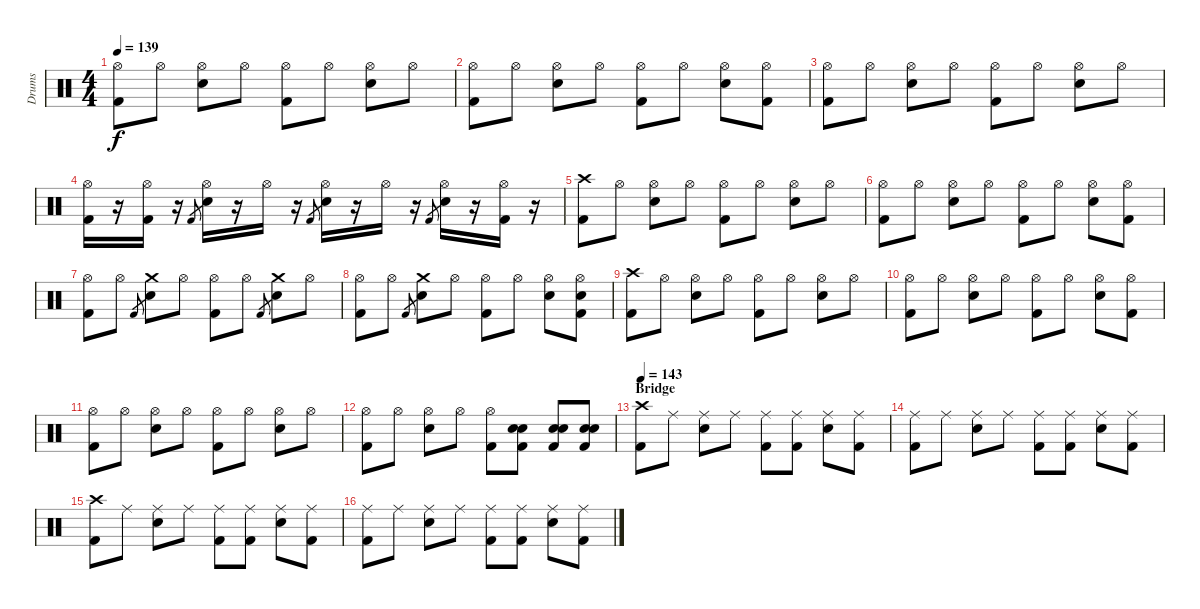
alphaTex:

\track ("Drums" "Drums") {instrument percussion}
\staff {score}
\articulation defaults
\ts (4 4)
\tempo 139
\clef neutral
\ks c
("Kick (hit) 2" "Hi-Hat (open)").8{dy f} "Hi-Hat (open)".8 ("Electric Snare (hit)" "Hi-Hat (open)").8 "Hi-Hat (open)".8 ("Kick (hit) 2" "Hi-Hat (open)").8 "Hi-Hat (open)".8 ("Electric Snare (hit)" "Hi-Hat (open)").8 "Hi-Hat (open)".8 |
("Kick (hit) 2" "Hi-Hat (open)").8 "Hi-Hat (open)".8 ("Electric Snare (hit)" "Hi-Hat (open)").8 "Hi-Hat (open)".8 ("Kick (hit) 2" "Hi-Hat (open)").8 "Hi-Hat (open)".8 ("Electric Snare (hit)" "Hi-Hat (open)").8 ("Kick (hit) 2" "Hi-Hat (open)").8 |
("Kick (hit) 2" "Hi-Hat (open)").8 "Hi-Hat (open)".8 ("Electric Snare (hit)" "Hi-Hat (open)").8 "Hi-Hat (open)".8 ("Kick (hit) 2" "Hi-Hat (open)").8 "Hi-Hat (open)".8 ("Electric Snare (hit)" "Hi-Hat (open)").8 "Hi-Hat (open)".8 |
("Kick (hit) 2" "Hi-Hat (open)").16 r.16 ("Kick (hit) 2" "Hi-Hat (open)").16 r.16 "Kick (hit) 2".8{gr} ("Electric Snare (hit)" "Hi-Hat (open)").16 r.16 "Hi-Hat (open)".16 r.16 "Kick (hit) 2".8{gr} ("Electric Snare (hit)" "Hi-Hat (open)").16 r.16 "Hi-Hat (open)".16 r.16 "Kick (hit) 2".8{gr} ("Electric Snare (hit)" "Hi-Hat (open)").16 r.16 ("Kick (hit) 2" "Hi-Hat (open)").16 r.16 |
("Kick (hit) 2" "Crash high (hit)").8 "Hi-Hat (open)".8 ("Electric Snare (hit)" "Hi-Hat (open)").8 "Hi-Hat (open)".8 ("Kick (hit) 2" "Hi-Hat (open)").8 "Hi-Hat (open)".8 ("Electric Snare (hit)" "Hi-Hat (open)").8 "Hi-Hat (open)".8 |
("Kick (hit) 2" "Hi-Hat (open)").8 "Hi-Hat (open)".8 ("Electric Snare (hit)" "Hi-Hat (open)").8 "Hi-Hat (open)".8 ("Kick (hit) 2" "Hi-Hat (open)").8 "Hi-Hat (open)".8 ("Electric Snare (hit)" "Hi-Hat (open)").8 ("Kick (hit) 2" "Hi-Hat (open)").8 |
("Kick (hit) 2" "Hi-Hat (open)").8 "Hi-Hat (open)".8 "Kick (hit) 2".8{gr} ("Electric Snare (hit)" "Crash medium (hit)").8 "Hi-Hat (open)".8 ("Kick (hit) 2" "Hi-Hat (open)").8 "Hi-Hat (open)".8 "Kick (hit) 2".8{gr} ("Electric Snare (hit)" "Crash medium (hit)").8 "Hi-Hat (open)".8 |
("Kick (hit) 2" "Hi-Hat (open)").8 "Hi-Hat (open)".8 "Kick (hit) 2".8{gr} ("Electric Snare (hit)" "Crash medium (hit)").8 "Hi-Hat (open)".8 ("Kick (hit) 2" "Hi-Hat (open)").8 "Hi-Hat (open)".8 ("Electric Snare (hit)" "Hi-Hat (open)").8 ("Kick (hit) 2" "Electric Snare (hit)" "Hi-Hat (open)").8 |
("Kick (hit) 2" "Crash high (hit)").8 "Hi-Hat (open)".8 ("Electric Snare (hit)" "Hi-Hat (open)").8 "Hi-Hat (open)".8 ("Kick (hit) 2" "Hi-Hat (open)").8 "Hi-Hat (open)".8 ("Electric Snare (hit)" "Hi-Hat (open)").8 "Hi-Hat (open)".8 |
("Kick (hit) 2" "Hi-Hat (open)").8 "Hi-Hat (open)".8 ("Electric Snare (hit)" "Hi-Hat (open)").8 "Hi-Hat (open)".8 ("Kick (hit) 2" "Hi-Hat (open)").8 "Hi-Hat (open)".8 ("Electric Snare (hit)" "Hi-Hat (open)").8 ("Kick (hit) 2" "Hi-Hat (open)").8 |
("Kick (hit) 2" "Hi-Hat (open)").8 "Hi-Hat (open)".8 ("Electric Snare (hit)" "Hi-Hat (open)").8 "Hi-Hat (open)".8 ("Kick (hit) 2" "Hi-Hat (open)").8 "Hi-Hat (open)".8 ("Electric Snare (hit)" "Hi-Hat (open)").8 "Hi-Hat (open)".8 |
("Kick (hit) 2" "Hi-Hat (open)").8 "Hi-Hat (open)".8 ("Electric Snare (hit)" "Hi-Hat (open)").8 "Hi-Hat (open)".8 ("Kick (hit) 2" "Hi-Hat (open)").8 ("Kick (hit) 2" "Electric Snare (hit)" "Electric Snare (hit)").8 ("Kick (hit) 2" "Electric Snare (hit)" "Electric Snare (hit)").8 ("Kick (hit) 2" "Electric Snare (hit)" "Electric Snare (hit)").8 |
\section ("" "Bridge")
\tempo 143
("Kick (hit) 2" "Crash high (hit)").8 "Ride (middle)".8 ("Electric Snare (hit)" "Ride (middle)").8 "Ride (middle)".8 ("Kick (hit) 2" "Ride (middle)").8 ("Kick (hit) 2" "Ride (middle)").8 ("Electric Snare (hit)" "Ride (middle)").8 ("Kick (hit) 2" "Ride (middle)").8 |
("Kick (hit) 2" "Ride (middle)").8 "Ride (middle)".8 ("Electric Snare (hit)" "Ride (middle)").8 "Ride (middle)".8 ("Kick (hit) 2" "Ride (middle)").8 ("Kick (hit) 2" "Ride (middle)").8 ("Electric Snare (hit)" "Ride (middle)").8 ("Kick (hit) 2" "Ride (middle)").8 |
("Kick (hit) 2" "Crash high (hit)").8 "Ride (middle)".8 ("Electric Snare (hit)" "Ride (middle)").8 "Ride (middle)".8 ("Kick (hit) 2" "Ride (middle)").8 ("Kick (hit) 2" "Ride (middle)").8 ("Electric Snare (hit)" "Ride (middle)").8 ("Kick (hit) 2" "Ride (middle)").8 |
("Kick (hit) 2" "Ride (middle)").8 "Ride (middle)".8 ("Electric Snare (hit)" "Ride (middle)").8 "Ride (middle)".8 ("Kick (hit) 2" "Ride (middle)").8 ("Kick (hit) 2" "Ride (middle)").8 ("Electric Snare (hit)" "Ride (middle)").8 ("Kick (hit) 2" "Ride (middle)").8
